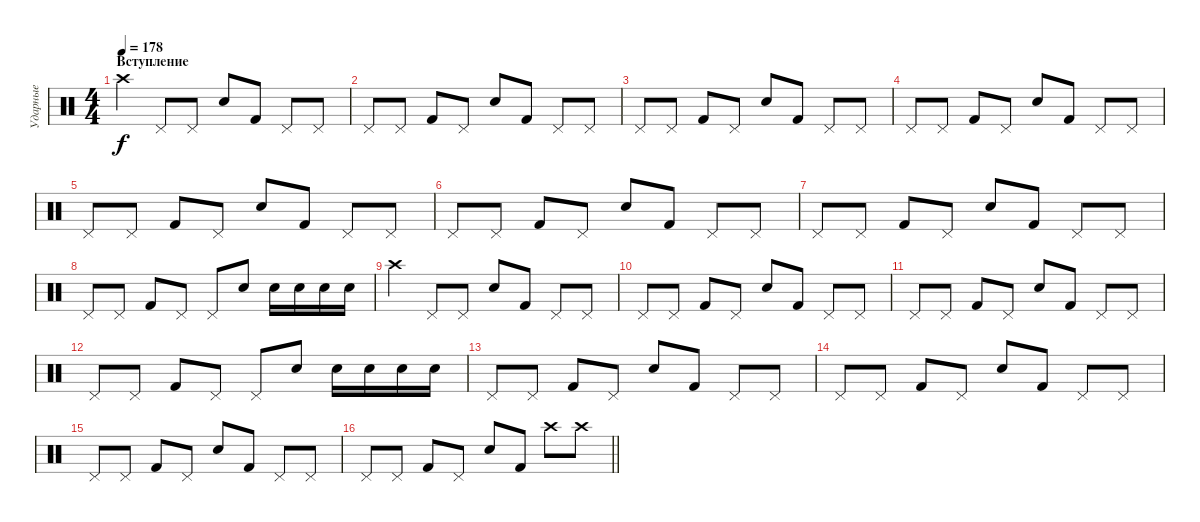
\track ("Ударные" "Ударные") {instrument percussion}
\staff {score}
\articulation defaults
\ts (4 4)
\section ("" "Вступление")
\tempo 178
\clef neutral
\ks c "Crash high (hit)".4{dy f} "Pedal Hi-Hat (hit)".8 "Pedal Hi-Hat (hit)".8 "Electric Snare (hit)".8 "Kick (hit) 2".8 "Pedal Hi-Hat (hit)".8 "Pedal Hi-Hat (hit)".8
|
"Pedal Hi-Hat (hit)".8 "Pedal Hi-Hat (hit)".8 "Kick (hit) 2".8 "Pedal Hi-Hat (hit)".8 "Electric Snare (hit)".8 "Kick (hit) 2".8 "Pedal Hi-Hat (hit)".8 "Pedal Hi-Hat (hit)".8 |
"Pedal Hi-Hat (hit)".8 "Pedal Hi-Hat (hit)".8 "Kick (hit) 2".8 "Pedal Hi-Hat (hit)".8 "Electric Snare (hit)".8 "Kick (hit) 2".8 "Pedal Hi-Hat (hit)".8 "Pedal Hi-Hat (hit)".8 |
"Pedal Hi-Hat (hit)".8 "Pedal Hi-Hat (hit)".8 "Kick (hit) 2".8 "Pedal Hi-Hat (hit)".8 "Electric Snare (hit)".8 "Kick (hit) 2".8 "Pedal Hi-Hat (hit)".8 "Pedal Hi-Hat (hit)".8 |
"Pedal Hi-Hat (hit)".8 "Pedal Hi-Hat (hit)".8 "Kick (hit) 2".8 "Pedal Hi-Hat (hit)".8 "Electric Snare (hit)".8 "Kick (hit) 2".8 "Pedal Hi-Hat (hit)".8 "Pedal Hi-Hat (hit)".8 |
"Pedal Hi-Hat (hit)".8 "Pedal Hi-Hat (hit)".8 "Kick (hit) 2".8 "Pedal Hi-Hat (hit)".8 "Electric Snare (hit)".8 "Kick (hit) 2".8 "Pedal Hi-Hat (hit)".8 "Pedal Hi-Hat (hit)".8 |
"Pedal Hi-Hat (hit)".8 "Pedal Hi-Hat (hit)".8 "Kick (hit) 2".8 "Pedal Hi-Hat (hit)".8 "Electric Snare (hit)".8 "Kick (hit) 2".8 "Pedal Hi-Hat (hit)".8 "Pedal Hi-Hat (hit)".8 |
"Pedal Hi-Hat (hit)".8 "Pedal Hi-Hat (hit)".8 "Kick (hit) 2".8 "Pedal Hi-Hat (hit)".8 "Pedal Hi-Hat (hit)".8 "Electric Snare (hit)".8 "Electric Snare (hit)".16 "Electric Snare (hit)".16 "Electric Snare (hit)".16 "Electric Snare (hit)".16 |
"Crash high (hit)".4 "Pedal Hi-Hat (hit)".8 "Pedal Hi-Hat (hit)".8 "Electric Snare (hit)".8 "Kick (hit) 2".8 "Pedal Hi-Hat (hit)".8 "Pedal Hi-Hat (hit)".8 |
"Pedal Hi-Hat (hit)".8 "Pedal Hi-Hat (hit)".8 "Kick (hit) 2".8 "Pedal Hi-Hat (hit)".8 "Electric Snare (hit)".8 "Kick (hit) 2".8 "Pedal Hi-Hat (hit)".8 "Pedal Hi-Hat (hit)".8 |
"Pedal Hi-Hat (hit)".8 "Pedal Hi-Hat (hit)".8 "Kick (hit) 2".8 "Pedal Hi-Hat (hit)".8 "Electric Snare (hit)".8 "Kick (hit) 2".8 "Pedal Hi-Hat (hit)".8 "Pedal Hi-Hat (hit)".8 |
"Pedal Hi-Hat (hit)".8 "Pedal Hi-Hat (hit)".8 "Kick (hit) 2".8 "Pedal Hi-Hat (hit)".8 "Pedal Hi-Hat (hit)".8 "Electric Snare (hit)".8 "Electric Snare (hit)".16 "Electric Snare (hit)".16 "Electric Snare (hit)".16 "Electric Snare (hit)".16 |
"Pedal Hi-Hat (hit)".8 "Pedal Hi-Hat (hit)".8 "Kick (hit) 2".8 "Pedal Hi-Hat (hit)".8 "Electric Snare (hit)".8 "Kick (hit) 2".8 "Pedal Hi-Hat (hit)".8 "Pedal Hi-Hat (hit)".8 |
"Pedal Hi-Hat (hit)".8 "Pedal Hi-Hat (hit)".8 "Kick (hit) 2".8 "Pedal Hi-Hat (hit)".8 "Electric Snare (hit)".8 "Kick (hit) 2".8 "Pedal Hi-Hat (hit)".8 "Pedal Hi-Hat (hit)".8 |
"Pedal Hi-Hat (hit)".8 "Pedal Hi-Hat (hit)".8 "Kick (hit) 2".8 "Pedal Hi-Hat (hit)".8 "Electric Snare (hit)".8 "Kick (hit) 2".8 "Pedal Hi-Hat (hit)".8 "Pedal Hi-Hat (hit)".8 |
\barLineRight lightlight "Pedal Hi-Hat (hit)".8 "Pedal Hi-Hat (hit)".8 "Kick (hit) 2".8 "Pedal Hi-Hat (hit)".8 "Electric Snare (hit)".8 "Kick (hit) 2".8 "Crash high (hit)".8 "Crash high (hit)".8
